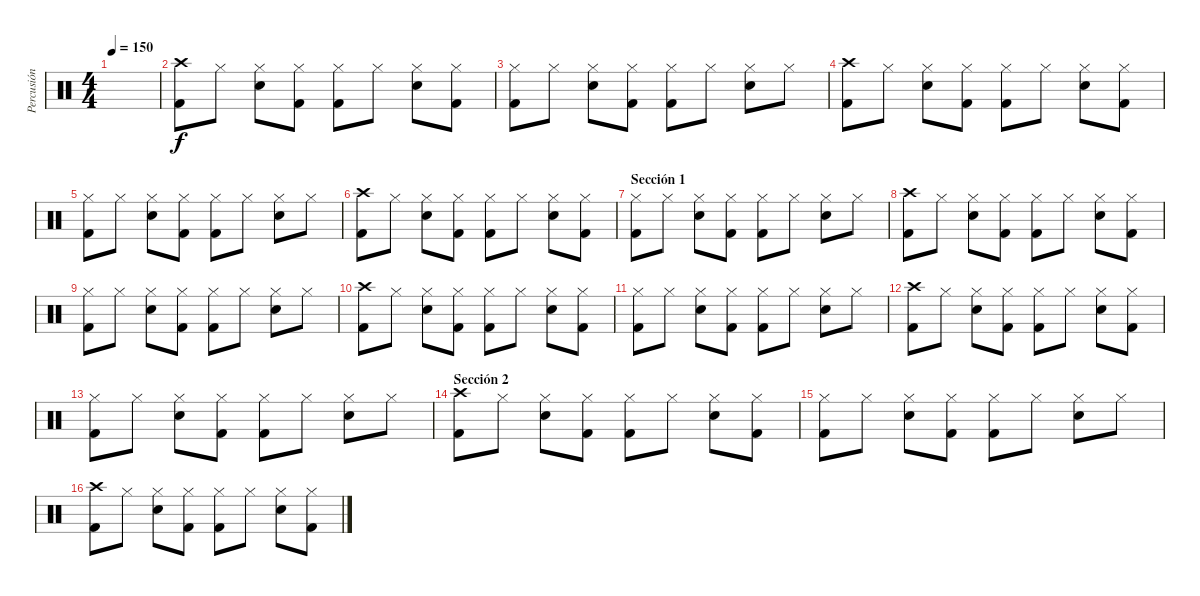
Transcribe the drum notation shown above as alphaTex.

\track ("Percusión" "Percusión") {instrument percussion}
\staff {score}
\articulation defaults
\ts (4 4)
\tempo 150
\clef neutral
\ks c
|
("Kick (hit) 2" "Crash high (hit)").8 "Hi-Hat (closed)".8 ("Hi-Hat (closed)" "Electric Snare (hit)").8 ("Kick (hit) 2" "Hi-Hat (closed)").8 ("Kick (hit) 2" "Hi-Hat (closed)").8 "Hi-Hat (closed)".8 ("Hi-Hat (closed)" "Electric Snare (hit)").8 ("Kick (hit) 2" "Hi-Hat (closed)").8 |
("Kick (hit) 2" "Hi-Hat (closed)").8 "Hi-Hat (closed)".8 ("Hi-Hat (closed)" "Electric Snare (hit)").8 ("Kick (hit) 2" "Hi-Hat (closed)").8 ("Kick (hit) 2" "Hi-Hat (closed)").8 "Hi-Hat (closed)".8 ("Hi-Hat (closed)" "Electric Snare (hit)").8 "Hi-Hat (closed)".8 |
("Kick (hit) 2" "Crash high (hit)").8 "Hi-Hat (closed)".8 ("Hi-Hat (closed)" "Electric Snare (hit)").8 ("Kick (hit) 2" "Hi-Hat (closed)").8 ("Kick (hit) 2" "Hi-Hat (closed)").8 "Hi-Hat (closed)".8 ("Hi-Hat (closed)" "Electric Snare (hit)").8 ("Kick (hit) 2" "Hi-Hat (closed)").8 |
("Kick (hit) 2" "Hi-Hat (closed)").8 "Hi-Hat (closed)".8 ("Hi-Hat (closed)" "Electric Snare (hit)").8 ("Kick (hit) 2" "Hi-Hat (closed)").8 ("Kick (hit) 2" "Hi-Hat (closed)").8 "Hi-Hat (closed)".8 ("Hi-Hat (closed)" "Electric Snare (hit)").8 "Hi-Hat (closed)".8 |
("Kick (hit) 2" "Crash high (hit)").8 "Hi-Hat (closed)".8 ("Hi-Hat (closed)" "Electric Snare (hit)").8 ("Kick (hit) 2" "Hi-Hat (closed)").8 ("Kick (hit) 2" "Hi-Hat (closed)").8 "Hi-Hat (closed)".8 ("Hi-Hat (closed)" "Electric Snare (hit)").8 ("Kick (hit) 2" "Hi-Hat (closed)").8 |
\section ("" "Sección 1")
("Kick (hit) 2" "Hi-Hat (closed)").8 "Hi-Hat (closed)".8 ("Hi-Hat (closed)" "Electric Snare (hit)").8 ("Kick (hit) 2" "Hi-Hat (closed)").8 ("Kick (hit) 2" "Hi-Hat (closed)").8 "Hi-Hat (closed)".8 ("Hi-Hat (closed)" "Electric Snare (hit)").8 "Hi-Hat (closed)".8 |
("Kick (hit) 2" "Crash high (hit)").8 "Hi-Hat (closed)".8 ("Hi-Hat (closed)" "Electric Snare (hit)").8 ("Kick (hit) 2" "Hi-Hat (closed)").8 ("Kick (hit) 2" "Hi-Hat (closed)").8 "Hi-Hat (closed)".8 ("Hi-Hat (closed)" "Electric Snare (hit)").8 ("Kick (hit) 2" "Hi-Hat (closed)").8 |
("Kick (hit) 2" "Hi-Hat (closed)").8 "Hi-Hat (closed)".8 ("Hi-Hat (closed)" "Electric Snare (hit)").8 ("Kick (hit) 2" "Hi-Hat (closed)").8 ("Kick (hit) 2" "Hi-Hat (closed)").8 "Hi-Hat (closed)".8 ("Hi-Hat (closed)" "Electric Snare (hit)").8 "Hi-Hat (closed)".8 |
("Kick (hit) 2" "Crash high (hit)").8 "Hi-Hat (closed)".8 ("Hi-Hat (closed)" "Electric Snare (hit)").8 ("Kick (hit) 2" "Hi-Hat (closed)").8 ("Kick (hit) 2" "Hi-Hat (closed)").8 "Hi-Hat (closed)".8 ("Hi-Hat (closed)" "Electric Snare (hit)").8 ("Kick (hit) 2" "Hi-Hat (closed)").8 |
("Kick (hit) 2" "Hi-Hat (closed)").8 "Hi-Hat (closed)".8 ("Hi-Hat (closed)" "Electric Snare (hit)").8 ("Kick (hit) 2" "Hi-Hat (closed)").8 ("Kick (hit) 2" "Hi-Hat (closed)").8 "Hi-Hat (closed)".8 ("Hi-Hat (closed)" "Electric Snare (hit)").8 "Hi-Hat (closed)".8 |
("Kick (hit) 2" "Crash high (hit)").8 "Hi-Hat (closed)".8 ("Hi-Hat (closed)" "Electric Snare (hit)").8 ("Kick (hit) 2" "Hi-Hat (closed)").8 ("Kick (hit) 2" "Hi-Hat (closed)").8 "Hi-Hat (closed)".8 ("Hi-Hat (closed)" "Electric Snare (hit)").8 ("Kick (hit) 2" "Hi-Hat (closed)").8 |
("Kick (hit) 2" "Hi-Hat (closed)").8 "Hi-Hat (closed)".8 ("Hi-Hat (closed)" "Electric Snare (hit)").8 ("Kick (hit) 2" "Hi-Hat (closed)").8 ("Kick (hit) 2" "Hi-Hat (closed)").8 "Hi-Hat (closed)".8 ("Hi-Hat (closed)" "Electric Snare (hit)").8 "Hi-Hat (closed)".8 |
\section ("" "Sección 2")
("Kick (hit) 2" "Crash high (hit)").8 "Hi-Hat (closed)".8 ("Hi-Hat (closed)" "Electric Snare (hit)").8 ("Kick (hit) 2" "Hi-Hat (closed)").8 ("Kick (hit) 2" "Hi-Hat (closed)").8 "Hi-Hat (closed)".8 ("Hi-Hat (closed)" "Electric Snare (hit)").8 ("Kick (hit) 2" "Hi-Hat (closed)").8 |
("Kick (hit) 2" "Hi-Hat (closed)").8 "Hi-Hat (closed)".8 ("Hi-Hat (closed)" "Electric Snare (hit)").8 ("Kick (hit) 2" "Hi-Hat (closed)").8 ("Kick (hit) 2" "Hi-Hat (closed)").8 "Hi-Hat (closed)".8 ("Hi-Hat (closed)" "Electric Snare (hit)").8 "Hi-Hat (closed)".8 |
("Kick (hit) 2" "Crash high (hit)").8 "Hi-Hat (closed)".8 ("Hi-Hat (closed)" "Electric Snare (hit)").8 ("Kick (hit) 2" "Hi-Hat (closed)").8 ("Kick (hit) 2" "Hi-Hat (closed)").8 "Hi-Hat (closed)".8 ("Hi-Hat (closed)" "Electric Snare (hit)").8 ("Kick (hit) 2" "Hi-Hat (closed)").8
